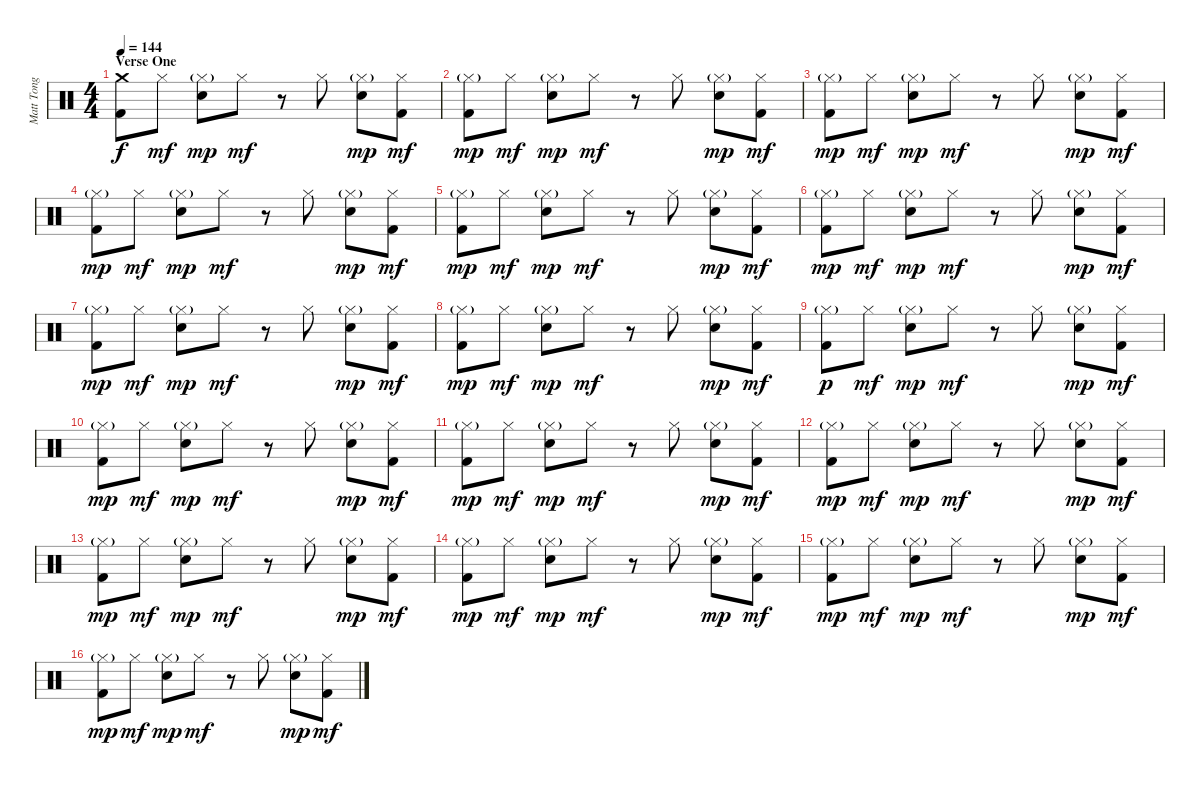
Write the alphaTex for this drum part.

\track ("Matt Tong" "Matt Tong") {instrument percussion}
\staff {score}
\articulation defaults
\ts (4 4)
\section ("" "Verse One")
\tempo 144
\clef neutral
\ks c
("Crash medium (hit)" "Kick (hit) 2").8{dy f} "Hi-Hat (closed)".8{dy mf} ("Hi-Hat (closed)"{g} "Electric Snare (hit)").8{dy mp} "Hi-Hat (closed)".8{dy mf} r.8 "Hi-Hat (closed)".8 ("Hi-Hat (closed)"{g} "Electric Snare (hit)").8{dy mp} ("Hi-Hat (closed)" "Kick (hit) 2").8{dy mf} |
("Hi-Hat (closed)"{g} "Kick (hit) 2").8{dy mp} "Hi-Hat (closed)".8{dy mf} ("Hi-Hat (closed)"{g} "Electric Snare (hit)").8{dy mp} "Hi-Hat (closed)".8{dy mf} r.8 "Hi-Hat (closed)".8 ("Hi-Hat (closed)"{g} "Electric Snare (hit)").8{dy mp} ("Hi-Hat (closed)" "Kick (hit) 2").8{dy mf} |
("Hi-Hat (closed)"{g} "Kick (hit) 2").8{dy mp} "Hi-Hat (closed)".8{dy mf} ("Hi-Hat (closed)"{g} "Electric Snare (hit)").8{dy mp} "Hi-Hat (closed)".8{dy mf} r.8 "Hi-Hat (closed)".8 ("Hi-Hat (closed)"{g} "Electric Snare (hit)").8{dy mp} ("Hi-Hat (closed)" "Kick (hit) 2").8{dy mf} |
("Hi-Hat (closed)"{g} "Kick (hit) 2").8{dy mp} "Hi-Hat (closed)".8{dy mf} ("Hi-Hat (closed)"{g} "Electric Snare (hit)").8{dy mp} "Hi-Hat (closed)".8{dy mf} r.8 "Hi-Hat (closed)".8 ("Hi-Hat (closed)"{g} "Electric Snare (hit)").8{dy mp} ("Hi-Hat (closed)" "Kick (hit) 2").8{dy mf} |
("Hi-Hat (closed)"{g} "Kick (hit) 2").8{dy mp} "Hi-Hat (closed)".8{dy mf} ("Hi-Hat (closed)"{g} "Electric Snare (hit)").8{dy mp} "Hi-Hat (closed)".8{dy mf} r.8 "Hi-Hat (closed)".8 ("Hi-Hat (closed)"{g} "Electric Snare (hit)").8{dy mp} ("Hi-Hat (closed)" "Kick (hit) 2").8{dy mf} |
("Hi-Hat (closed)"{g} "Kick (hit) 2").8{dy mp} "Hi-Hat (closed)".8{dy mf} ("Hi-Hat (closed)"{g} "Electric Snare (hit)").8{dy mp} "Hi-Hat (closed)".8{dy mf} r.8 "Hi-Hat (closed)".8 ("Hi-Hat (closed)"{g} "Electric Snare (hit)").8{dy mp} ("Hi-Hat (closed)" "Kick (hit) 2").8{dy mf} |
("Hi-Hat (closed)"{g} "Kick (hit) 2").8{dy mp} "Hi-Hat (closed)".8{dy mf} ("Hi-Hat (closed)"{g} "Electric Snare (hit)").8{dy mp} "Hi-Hat (closed)".8{dy mf} r.8 "Hi-Hat (closed)".8 ("Hi-Hat (closed)"{g} "Electric Snare (hit)").8{dy mp} ("Hi-Hat (closed)" "Kick (hit) 2").8{dy mf} |
("Hi-Hat (closed)"{g} "Kick (hit) 2").8{dy mp} "Hi-Hat (closed)".8{dy mf} ("Hi-Hat (closed)"{g} "Electric Snare (hit)").8{dy mp} "Hi-Hat (closed)".8{dy mf} r.8 "Hi-Hat (closed)".8 ("Hi-Hat (closed)"{g} "Electric Snare (hit)").8{dy mp} ("Hi-Hat (closed)" "Kick (hit) 2").8{dy mf} |
("Hi-Hat (closed)"{g} "Kick (hit) 2").8{dy p} "Hi-Hat (closed)".8{dy mf} ("Hi-Hat (closed)"{g} "Electric Snare (hit)").8{dy mp} "Hi-Hat (closed)".8{dy mf} r.8 "Hi-Hat (closed)".8 ("Hi-Hat (closed)"{g} "Electric Snare (hit)").8{dy mp} ("Hi-Hat (closed)" "Kick (hit) 2").8{dy mf} |
("Hi-Hat (closed)"{g} "Kick (hit) 2").8{dy mp} "Hi-Hat (closed)".8{dy mf} ("Hi-Hat (closed)"{g} "Electric Snare (hit)").8{dy mp} "Hi-Hat (closed)".8{dy mf} r.8 "Hi-Hat (closed)".8 ("Hi-Hat (closed)"{g} "Electric Snare (hit)").8{dy mp} ("Hi-Hat (closed)" "Kick (hit) 2").8{dy mf} |
("Hi-Hat (closed)"{g} "Kick (hit) 2").8{dy mp} "Hi-Hat (closed)".8{dy mf} ("Hi-Hat (closed)"{g} "Electric Snare (hit)").8{dy mp} "Hi-Hat (closed)".8{dy mf} r.8 "Hi-Hat (closed)".8 ("Hi-Hat (closed)"{g} "Electric Snare (hit)").8{dy mp} ("Hi-Hat (closed)" "Kick (hit) 2").8{dy mf} |
("Hi-Hat (closed)"{g} "Kick (hit) 2").8{dy mp} "Hi-Hat (closed)".8{dy mf} ("Hi-Hat (closed)"{g} "Electric Snare (hit)").8{dy mp} "Hi-Hat (closed)".8{dy mf} r.8 "Hi-Hat (closed)".8 ("Hi-Hat (closed)"{g} "Electric Snare (hit)").8{dy mp} ("Hi-Hat (closed)" "Kick (hit) 2").8{dy mf} |
("Hi-Hat (closed)"{g} "Kick (hit) 2").8{dy mp} "Hi-Hat (closed)".8{dy mf} ("Hi-Hat (closed)"{g} "Electric Snare (hit)").8{dy mp} "Hi-Hat (closed)".8{dy mf} r.8 "Hi-Hat (closed)".8 ("Hi-Hat (closed)"{g} "Electric Snare (hit)").8{dy mp} ("Hi-Hat (closed)" "Kick (hit) 2").8{dy mf} |
("Hi-Hat (closed)"{g} "Kick (hit) 2").8{dy mp} "Hi-Hat (closed)".8{dy mf} ("Hi-Hat (closed)"{g} "Electric Snare (hit)").8{dy mp} "Hi-Hat (closed)".8{dy mf} r.8 "Hi-Hat (closed)".8 ("Hi-Hat (closed)"{g} "Electric Snare (hit)").8{dy mp} ("Hi-Hat (closed)" "Kick (hit) 2").8{dy mf} |
("Hi-Hat (closed)"{g} "Kick (hit) 2").8{dy mp} "Hi-Hat (closed)".8{dy mf} ("Hi-Hat (closed)"{g} "Electric Snare (hit)").8{dy mp} "Hi-Hat (closed)".8{dy mf} r.8 "Hi-Hat (closed)".8 ("Hi-Hat (closed)"{g} "Electric Snare (hit)").8{dy mp} ("Hi-Hat (closed)" "Kick (hit) 2").8{dy mf} |
("Hi-Hat (closed)"{g} "Kick (hit) 2").8{dy mp} "Hi-Hat (closed)".8{dy mf} ("Hi-Hat (closed)"{g} "Electric Snare (hit)").8{dy mp} "Hi-Hat (closed)".8{dy mf} r.8 "Hi-Hat (closed)".8 ("Hi-Hat (closed)"{g} "Electric Snare (hit)").8{dy mp} ("Hi-Hat (closed)" "Kick (hit) 2").8{dy mf}
